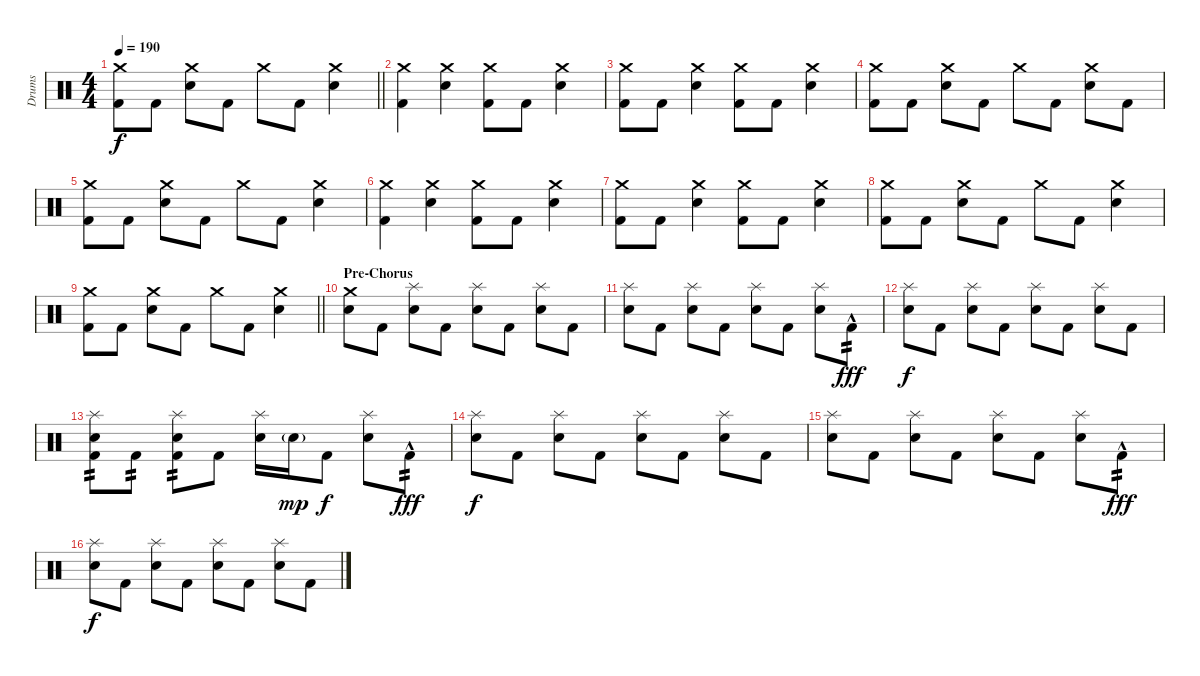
\track ("Drums" "Drums") {instrument percussion}
\staff {score}
\articulation defaults
\ts (4 4)
\tempo 190
\clef neutral
\barLineRight lightlight
\ks c
("Kick (hit) 2" "Crash medium (hit)").8{dy f} "Kick (hit) 2".8 ("Snare (hit) 2" "Crash medium (hit)").8 "Kick (hit) 2".8 "Crash medium (hit)".8 "Kick (hit) 2".8 ("Snare (hit) 2" "Crash medium (hit)").4 |
\section ("" "")
("Kick (hit) 2" "Crash medium (hit)").4 ("Snare (hit) 2" "Crash medium (hit)").4 ("Kick (hit) 2" "Crash medium (hit)").8 "Kick (hit) 2".8 ("Snare (hit) 2" "Crash medium (hit)").4 |
("Kick (hit) 2" "Crash medium (hit)").8 "Kick (hit) 2".8 ("Snare (hit) 2" "Crash medium (hit)").4 ("Kick (hit) 2" "Crash medium (hit)").8 "Kick (hit) 2".8 ("Snare (hit) 2" "Crash medium (hit)").4 |
("Kick (hit) 2" "Crash medium (hit)").8 "Kick (hit) 2".8 ("Snare (hit) 2" "Crash medium (hit)").8 "Kick (hit) 2".8 "Crash medium (hit)".8 "Kick (hit) 2".8 ("Snare (hit) 2" "Crash medium (hit)").8 "Kick (hit) 2".8 |
("Kick (hit) 2" "Crash medium (hit)").8 "Kick (hit) 2".8 ("Snare (hit) 2" "Crash medium (hit)").8 "Kick (hit) 2".8 "Crash medium (hit)".8 "Kick (hit) 2".8 ("Snare (hit) 2" "Crash medium (hit)").4 |
("Kick (hit) 2" "Crash medium (hit)").4 ("Snare (hit) 2" "Crash medium (hit)").4 ("Kick (hit) 2" "Crash medium (hit)").8 "Kick (hit) 2".8 ("Snare (hit) 2" "Crash medium (hit)").4 |
("Kick (hit) 2" "Crash medium (hit)").8 "Kick (hit) 2".8 ("Snare (hit) 2" "Crash medium (hit)").4 ("Kick (hit) 2" "Crash medium (hit)").8 "Kick (hit) 2".8 ("Snare (hit) 2" "Crash medium (hit)").4 |
("Kick (hit) 2" "Crash medium (hit)").8 "Kick (hit) 2".8 ("Snare (hit) 2" "Crash medium (hit)").8 "Kick (hit) 2".8 "Crash medium (hit)".8 "Kick (hit) 2".8 ("Snare (hit) 2" "Crash medium (hit)").4 |
\barLineRight lightlight
("Kick (hit) 2" "Crash medium (hit)").8 "Kick (hit) 2".8 ("Snare (hit) 2" "Crash medium (hit)").8 "Kick (hit) 2".8 "Crash medium (hit)".8 "Kick (hit) 2".8 ("Snare (hit) 2" "Crash medium (hit)").4 |
\section ("" "Pre-Chorus")
("Snare (hit) 2" "Crash medium (hit)").8 "Kick (hit) 2".8 ("Snare (hit) 2" "Splash (hit)").8 "Kick (hit) 2".8 ("Snare (hit) 2" "Splash (hit)").8 "Kick (hit) 2".8 ("Snare (hit) 2" "Splash (hit)").8 "Kick (hit) 2".8 |
("Snare (hit) 2" "Splash (hit)").8 "Kick (hit) 2".8 ("Snare (hit) 2" "Splash (hit)").8 "Kick (hit) 2".8 ("Snare (hit) 2" "Splash (hit)").8 "Kick (hit) 2".8 ("Snare (hit) 2" "Splash (hit)").8 "Kick (hit) 2"{hac}.8{tp 2 dy fff} |
("Snare (hit) 2" "Splash (hit)").8{dy f} "Kick (hit) 2".8 ("Snare (hit) 2" "Splash (hit)").8 "Kick (hit) 2".8 ("Snare (hit) 2" "Splash (hit)").8 "Kick (hit) 2".8 ("Snare (hit) 2" "Splash (hit)").8 "Kick (hit) 2".8 |
("Kick (hit) 2" "Snare (hit) 2" "Splash (hit)").8{tp 2} "Kick (hit) 2".8{tp 2} ("Kick (hit) 2" "Snare (hit) 2" "Splash (hit)").8{tp 2} "Kick (hit) 2".8 ("Snare (hit) 2" "Splash (hit)").16 "Snare (hit) 2"{g}.16{dy mp} "Kick (hit) 2".8{dy f} ("Snare (hit) 2" "Splash (hit)").8 "Kick (hit) 2"{hac}.8{tp 2 dy fff} |
("Snare (hit) 2" "Splash (hit)").8{dy f} "Kick (hit) 2".8 ("Snare (hit) 2" "Splash (hit)").8 "Kick (hit) 2".8 ("Snare (hit) 2" "Splash (hit)").8 "Kick (hit) 2".8 ("Snare (hit) 2" "Splash (hit)").8 "Kick (hit) 2".8 |
("Snare (hit) 2" "Splash (hit)").8 "Kick (hit) 2".8 ("Snare (hit) 2" "Splash (hit)").8 "Kick (hit) 2".8 ("Snare (hit) 2" "Splash (hit)").8 "Kick (hit) 2".8 ("Snare (hit) 2" "Splash (hit)").8 "Kick (hit) 2"{hac}.8{tp 2 dy fff} |
("Snare (hit) 2" "Splash (hit)").8{dy f} "Kick (hit) 2".8 ("Snare (hit) 2" "Splash (hit)").8 "Kick (hit) 2".8 ("Snare (hit) 2" "Splash (hit)").8 "Kick (hit) 2".8 ("Snare (hit) 2" "Splash (hit)").8 "Kick (hit) 2".8
